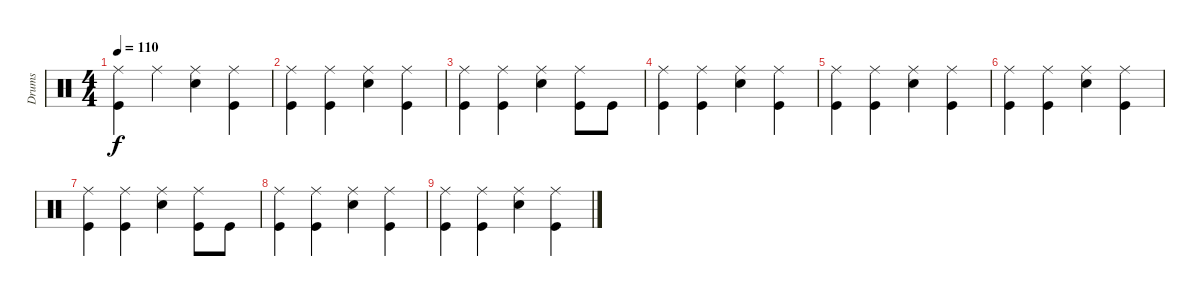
\track ("Drums" "Drums") {instrument percussion}
\staff {score}
\articulation defaults
\ts (4 4)
\tempo 110
\clef neutral
\ks c
("Ride (middle)" "Kick (hit)").4{dy f} "Ride (middle)".4 ("Ride (middle)" "Snare (hit) 2").4 ("Ride (middle)" "Kick (hit)").4 |
("Ride (middle)" "Kick (hit)").4 ("Ride (middle)" "Kick (hit)").4 ("Ride (middle)" "Snare (hit) 2").4 ("Ride (middle)" "Kick (hit)").4 |
("Ride (middle)" "Kick (hit)").4 ("Ride (middle)" "Kick (hit)").4 ("Ride (middle)" "Snare (hit) 2").4 ("Ride (middle)" "Kick (hit)").8 "Kick (hit)".8 |
("Ride (middle)" "Kick (hit)").4 ("Ride (middle)" "Kick (hit)").4 ("Ride (middle)" "Snare (hit) 2").4 ("Ride (middle)" "Kick (hit)").4 |
("Ride (middle)" "Kick (hit)").4 ("Ride (middle)" "Kick (hit)").4 ("Ride (middle)" "Snare (hit) 2").4 ("Ride (middle)" "Kick (hit)").4 |
("Ride (middle)" "Kick (hit)").4 ("Ride (middle)" "Kick (hit)").4 ("Ride (middle)" "Snare (hit) 2").4 ("Ride (middle)" "Kick (hit)").4 |
("Ride (middle)" "Kick (hit)").4 ("Ride (middle)" "Kick (hit)").4 ("Ride (middle)" "Snare (hit) 2").4 ("Ride (middle)" "Kick (hit)").8 "Kick (hit)".8 |
("Ride (middle)" "Kick (hit)").4 ("Ride (middle)" "Kick (hit)").4 ("Ride (middle)" "Snare (hit) 2").4 ("Ride (middle)" "Kick (hit)").4 |
("Ride (middle)" "Kick (hit)").4 ("Ride (middle)" "Kick (hit)").4 ("Ride (middle)" "Snare (hit) 2").4 ("Ride (middle)" "Kick (hit)").4
